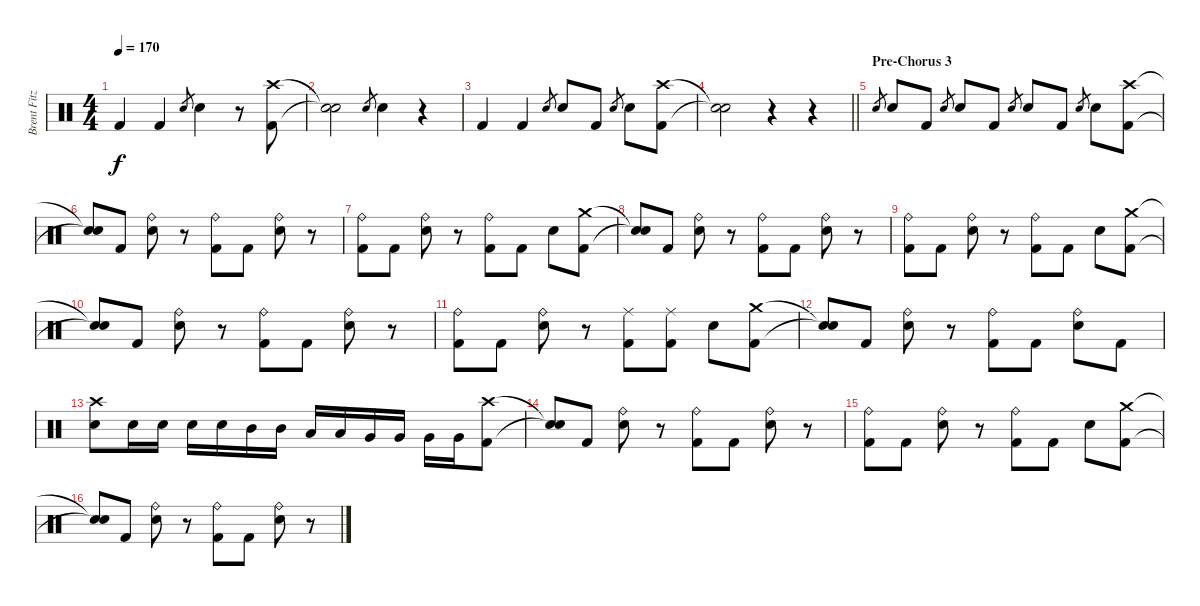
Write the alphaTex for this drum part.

\track ("Brent Fitz" "Brent Fitz") {instrument percussion}
\staff {score}
\articulation defaults
\ts (4 4)
\tempo 170
\clef neutral
\ks c "Kick (hit) 2".4{dy f} "Kick (hit) 2".4 "Electric Snare (hit)".8{gr} "Electric Snare (hit)".4
r.8 ("Crash high (hit)" "Kick (hit) 2").8 |
("Snare (hit)"{t} "Snare (hit)"{t}).2 "Electric Snare (hit)".8{gr} "Electric Snare (hit)".4 r.4 |
"Kick (hit) 2".4 "Kick (hit) 2".4 "Electric Snare (hit)".8{gr} "Electric Snare (hit)".8 "Kick (hit) 2".8 "Electric Snare (hit)".8{gr} "Electric Snare (hit)".8 ("Crash high (hit)" "Kick (hit) 2").8 |
\barLineRight lightlight
("Snare (hit)"{t} "Snare (hit)"{t}).2 r.4 r.4 |
\section ("" "Pre-Chorus 3")
"Electric Snare (hit)".8{gr} "Electric Snare (hit)".8 "Kick (hit) 2".8 "Electric Snare (hit)".8{gr} "Electric Snare (hit)".8 "Kick (hit) 2".8 "Electric Snare (hit)".8{gr} "Electric Snare (hit)".8 "Kick (hit) 2".8 "Electric Snare (hit)".8{gr} "Electric Snare (hit)".8 ("Crash high (hit)" "Kick (hit) 2").8 |
("Snare (hit)"{t} "Snare (hit)"{t}).8 "Kick (hit) 2".8 ("Ride (bell)" "Electric Snare (hit)").8 r.8 ("Ride (bell)" "Kick (hit) 2").8 "Kick (hit) 2".8 ("Ride (bell)" "Electric Snare (hit)").8 r.8 |
("Ride (bell)" "Kick (hit) 2").8 "Kick (hit) 2".8 ("Ride (bell)" "Electric Snare (hit)").8 r.8 ("Ride (bell)" "Kick (hit) 2").8 "Kick (hit) 2".8 "Electric Snare (hit)".8 ("Crash medium (hit)" "Kick (hit) 2").8 |
("Snare (hit)"{t} "Snare (hit)"{t}).8 "Kick (hit) 2".8 ("Ride (bell)" "Electric Snare (hit)").8 r.8 ("Ride (bell)" "Kick (hit) 2").8 "Kick (hit) 2".8 ("Ride (bell)" "Electric Snare (hit)").8 r.8 |
("Ride (bell)" "Kick (hit) 2").8 "Kick (hit) 2".8 ("Ride (bell)" "Electric Snare (hit)").8 r.8 ("Ride (bell)" "Kick (hit) 2").8 "Kick (hit) 2".8 "Electric Snare (hit)".8 ("Crash medium (hit)" "Kick (hit) 2").8 |
("Snare (hit)"{t} "Snare (hit)"{t}).8 "Kick (hit) 2".8 ("Ride (bell)" "Electric Snare (hit)").8 r.8 ("Ride (bell)" "Kick (hit) 2").8 "Kick (hit) 2".8 ("Ride (bell)" "Electric Snare (hit)").8 r.8 |
("Ride (bell)" "Kick (hit) 2").8 "Kick (hit) 2".8 ("Ride (bell)" "Electric Snare (hit)").8 r.8 ("Ride (middle)" "Kick (hit) 2").8 ("Ride (middle)" "Kick (hit) 2").8 "Electric Snare (hit)".8 ("Crash medium (hit)" "Kick (hit) 2").8 |
("Snare (hit)"{t} "Snare (hit)"{t}).8 "Kick (hit) 2".8 ("Ride (bell)" "Electric Snare (hit)").8 r.8 ("Ride (bell)" "Kick (hit) 2").8 "Kick (hit) 2".8 ("Ride (bell)" "Electric Snare (hit)").8 "Kick (hit) 2".8 |
("Crash high (hit)" "Electric Snare (hit)").8 "Electric Snare (hit)".16 "Electric Snare (hit)".16 "Electric Snare (hit)".16 "Electric Snare (hit)".16 "Mid Tom (hit)".16 "Mid Tom (hit)".16 "Low Tom (hit)".16 "Low Tom (hit)".16 "Very Low Tom (hit)".16 "Very Low Tom (hit)".16 "Very Low Tom (hit)".16 "Very Low Tom (hit)".16 ("Crash high (hit)" "Kick (hit) 2").8 |
("Snare (hit)"{t} "Snare (hit)"{t}).8 "Kick (hit) 2".8 ("Ride (bell)" "Electric Snare (hit)").8 r.8 ("Ride (bell)" "Kick (hit) 2").8 "Kick (hit) 2".8 ("Ride (bell)" "Electric Snare (hit)").8 r.8 |
("Ride (bell)" "Kick (hit) 2").8 "Kick (hit) 2".8 ("Ride (bell)" "Electric Snare (hit)").8 r.8 ("Ride (bell)" "Kick (hit) 2").8 "Kick (hit) 2".8 "Electric Snare (hit)".8 ("Crash medium (hit)" "Kick (hit) 2").8 |
("Snare (hit)"{t} "Snare (hit)"{t}).8 "Kick (hit) 2".8 ("Ride (bell)" "Electric Snare (hit)").8 r.8 ("Ride (bell)" "Kick (hit) 2").8 "Kick (hit) 2".8 ("Ride (bell)" "Electric Snare (hit)").8 r.8
